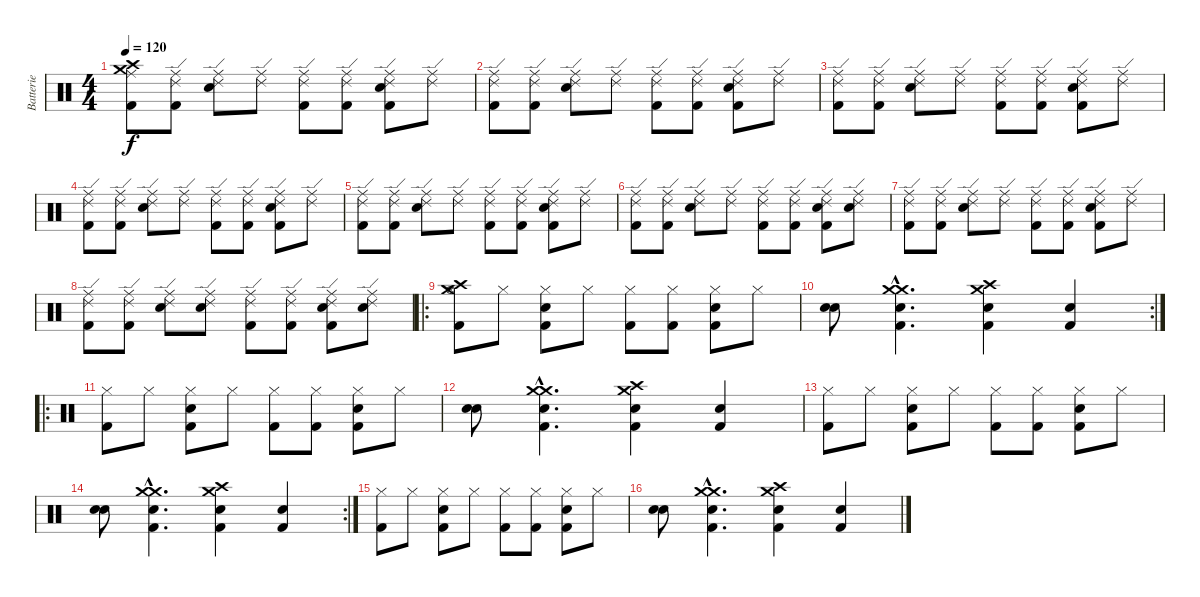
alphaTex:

\track ("Batterie" "Batterie") {instrument percussion}
\staff {score}
\articulation defaults
\ts (4 4)
\tempo 120
\clef neutral
\ks c
("Ride (middle)" "Crash high (hit)" "Crash medium (hit)" "Kick (hit) 2").8{dy f} ("Ride (middle)" "Ride (edge) 2" "Kick (hit) 2").8 ("Ride (middle)" "Ride (edge) 2" "Snare (hit) 2").8 ("Ride (middle)" "Ride (edge) 2").8 ("Ride (middle)" "Ride (edge) 2" "Kick (hit) 2").8 ("Ride (middle)" "Ride (edge) 2" "Kick (hit) 2").8 ("Ride (middle)" "Ride (edge) 2" "Snare (hit) 2" "Kick (hit) 2").8 ("Ride (middle)" "Ride (edge) 2").8 |
("Ride (middle)" "Ride (edge) 2" "Kick (hit) 2").8 ("Ride (middle)" "Ride (edge) 2" "Kick (hit) 2").8 ("Ride (middle)" "Ride (edge) 2" "Snare (hit) 2").8 ("Ride (middle)" "Ride (edge) 2").8 ("Ride (middle)" "Ride (edge) 2" "Kick (hit) 2").8 ("Ride (middle)" "Ride (edge) 2" "Kick (hit) 2").8 ("Ride (middle)" "Ride (edge) 2" "Snare (hit) 2" "Kick (hit) 2").8 ("Ride (middle)" "Ride (edge) 2").8 |
("Ride (middle)" "Ride (edge) 2" "Kick (hit) 2").8 ("Ride (middle)" "Ride (edge) 2" "Kick (hit) 2").8 ("Ride (middle)" "Ride (edge) 2" "Snare (hit) 2").8 ("Ride (middle)" "Ride (edge) 2").8 ("Ride (middle)" "Ride (edge) 2" "Kick (hit) 2").8 ("Ride (middle)" "Ride (edge) 2" "Kick (hit) 2").8 ("Ride (middle)" "Ride (edge) 2" "Snare (hit) 2" "Kick (hit) 2").8 ("Ride (middle)" "Ride (edge) 2").8 |
("Ride (middle)" "Ride (edge) 2" "Kick (hit) 2").8 ("Ride (middle)" "Ride (edge) 2" "Kick (hit) 2").8 ("Ride (middle)" "Ride (edge) 2" "Snare (hit) 2").8 ("Ride (middle)" "Ride (edge) 2").8 ("Ride (middle)" "Ride (edge) 2" "Kick (hit) 2").8 ("Ride (middle)" "Ride (edge) 2" "Kick (hit) 2").8 ("Ride (middle)" "Ride (edge) 2" "Snare (hit) 2" "Kick (hit) 2").8 ("Ride (middle)" "Ride (edge) 2").8 |
("Ride (middle)" "Ride (edge) 2" "Kick (hit) 2").8 ("Ride (middle)" "Ride (edge) 2" "Kick (hit) 2").8 ("Ride (middle)" "Ride (edge) 2" "Snare (hit) 2").8 ("Ride (middle)" "Ride (edge) 2").8 ("Ride (middle)" "Ride (edge) 2" "Kick (hit) 2").8 ("Ride (middle)" "Ride (edge) 2" "Kick (hit) 2").8 ("Ride (middle)" "Ride (edge) 2" "Snare (hit) 2" "Kick (hit) 2").8 ("Ride (middle)" "Ride (edge) 2").8 |
("Ride (middle)" "Ride (edge) 2" "Kick (hit) 2").8 ("Ride (middle)" "Ride (edge) 2" "Kick (hit) 2").8 ("Ride (middle)" "Ride (edge) 2" "Snare (hit) 2").8 ("Ride (middle)" "Ride (edge) 2").8 ("Ride (middle)" "Ride (edge) 2" "Kick (hit) 2").8 ("Ride (middle)" "Ride (edge) 2" "Kick (hit) 2").8 ("Ride (middle)" "Ride (edge) 2" "Snare (hit) 2" "Kick (hit) 2").8 ("Ride (middle)" "Ride (edge) 2" "Snare (hit) 2").8 |
("Ride (middle)" "Ride (edge) 2" "Kick (hit) 2").8 ("Ride (middle)" "Ride (edge) 2" "Kick (hit) 2").8 ("Ride (middle)" "Ride (edge) 2" "Snare (hit) 2").8 ("Ride (middle)" "Ride (edge) 2").8 ("Ride (middle)" "Ride (edge) 2" "Kick (hit) 2").8 ("Ride (middle)" "Ride (edge) 2" "Kick (hit) 2").8 ("Ride (middle)" "Ride (edge) 2" "Snare (hit) 2" "Kick (hit) 2").8 ("Ride (middle)" "Ride (edge) 2").8 |
("Ride (middle)" "Ride (edge) 2" "Kick (hit) 2").8 ("Ride (middle)" "Ride (edge) 2" "Kick (hit) 2").8 ("Ride (middle)" "Ride (edge) 2" "Snare (hit) 2").8 ("Ride (middle)" "Ride (edge) 2" "Snare (hit) 2").8 ("Ride (middle)" "Ride (edge) 2" "Kick (hit) 2").8 ("Ride (middle)" "Ride (edge) 2" "Kick (hit) 2").8 ("Ride (middle)" "Ride (edge) 2" "Snare (hit) 2" "Kick (hit) 2").8 ("Ride (middle)" "Ride (edge) 2" "Snare (hit) 2").8 |
\ro
("Hi-Hat (open)" "Crash medium (hit)" "Crash high (hit)" "Kick (hit) 2").8 "Hi-Hat (closed)".8 ("Hi-Hat (closed)" "Snare (hit) 2" "Kick (hit) 2").8 "Hi-Hat (closed)".8 ("Hi-Hat (closed)" "Kick (hit) 2").8 ("Hi-Hat (closed)" "Kick (hit) 2").8 ("Hi-Hat (closed)" "Snare (hit) 2" "Kick (hit) 2").8 "Hi-Hat (closed)".8 |
\rc 2
("Snare (hit) 2" "Snare (hit) 2").8 ("Crash medium (hit)"{hac} "Crash medium (hit)"{hac} "Snare (hit) 2"{hac} "Kick (hit) 2"{hac}).4{d} ("Crash medium (hit)" "Crash high (hit)" "Snare (hit) 2" "Kick (hit) 2").4 ("Snare (hit) 2" "Kick (hit) 2").4 |
\ro
("Hi-Hat (closed)" "Kick (hit) 2").8 "Hi-Hat (closed)".8 ("Hi-Hat (closed)" "Snare (hit) 2" "Kick (hit) 2").8 "Hi-Hat (closed)".8 ("Hi-Hat (closed)" "Kick (hit) 2").8 ("Hi-Hat (closed)" "Kick (hit) 2").8 ("Hi-Hat (closed)" "Snare (hit) 2" "Kick (hit) 2").8 "Hi-Hat (closed)".8 |
("Snare (hit) 2" "Snare (hit) 2").8 ("Crash medium (hit)"{hac} "Crash medium (hit)"{hac} "Snare (hit) 2"{hac} "Kick (hit) 2"{hac}).4{d} ("Crash medium (hit)" "Crash high (hit)" "Snare (hit) 2" "Kick (hit) 2").4 ("Snare (hit) 2" "Kick (hit) 2").4 |
("Hi-Hat (closed)" "Kick (hit) 2").8 "Hi-Hat (closed)".8 ("Hi-Hat (closed)" "Snare (hit) 2" "Kick (hit) 2").8 "Hi-Hat (closed)".8 ("Hi-Hat (closed)" "Kick (hit) 2").8 ("Hi-Hat (closed)" "Kick (hit) 2").8 ("Hi-Hat (closed)" "Snare (hit) 2" "Kick (hit) 2").8 "Hi-Hat (closed)".8 |
\rc 2
("Snare (hit) 2" "Snare (hit) 2").8 ("Crash medium (hit)"{hac} "Crash medium (hit)"{hac} "Snare (hit) 2"{hac} "Kick (hit) 2"{hac}).4{d} ("Crash medium (hit)" "Crash high (hit)" "Snare (hit) 2" "Kick (hit) 2").4 ("Snare (hit) 2" "Kick (hit) 2").4 |
("Hi-Hat (closed)" "Kick (hit) 2").8 "Hi-Hat (closed)".8 ("Hi-Hat (closed)" "Snare (hit) 2" "Kick (hit) 2").8 "Hi-Hat (closed)".8 ("Hi-Hat (closed)" "Kick (hit) 2").8 ("Hi-Hat (closed)" "Kick (hit) 2").8 ("Hi-Hat (closed)" "Snare (hit) 2" "Kick (hit) 2").8 "Hi-Hat (closed)".8 |
("Snare (hit) 2" "Snare (hit) 2").8 ("Crash medium (hit)"{hac} "Crash medium (hit)"{hac} "Snare (hit) 2"{hac} "Kick (hit) 2"{hac}).4{d} ("Crash medium (hit)" "Crash high (hit)" "Snare (hit) 2" "Kick (hit) 2").4 ("Snare (hit) 2" "Kick (hit) 2").4
